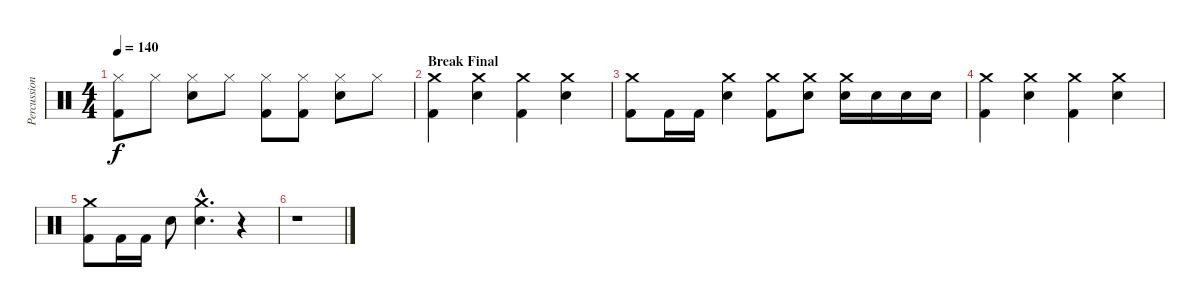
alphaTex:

\track ("Percussions" "Percussion") {instrument percussion}
\staff {score}
\articulation defaults
\ts (4 4)
\tempo 140
\clef neutral
\ks c
("Hi-Hat (closed)" "Kick (hit) 2").8{dy f} "Hi-Hat (closed)".8 ("Hi-Hat (closed)" "Electric Snare (hit)").8 "Hi-Hat (closed)".8 ("Hi-Hat (closed)" "Kick (hit) 2").8 ("Hi-Hat (closed)" "Kick (hit) 2").8 ("Hi-Hat (closed)" "Electric Snare (hit)").8 "Hi-Hat (closed)".8 |
\section ("" "Break Final")
("Crash medium (hit)" "Kick (hit) 2").4 ("Crash medium (hit)" "Electric Snare (hit)").4 ("Crash medium (hit)" "Kick (hit) 2").4 ("Crash medium (hit)" "Electric Snare (hit)").4 |
("Crash medium (hit)" "Kick (hit) 2").8 "Kick (hit) 2".16 "Kick (hit) 2".16 ("Crash medium (hit)" "Electric Snare (hit)").4 ("Crash medium (hit)" "Kick (hit) 2").8 ("Crash medium (hit)" "Electric Snare (hit)").8 ("Crash medium (hit)" "Electric Snare (hit)").16 "Electric Snare (hit)".16 "Electric Snare (hit)".16 "Electric Snare (hit)".16 |
("Crash medium (hit)" "Kick (hit) 2").4 ("Crash medium (hit)" "Electric Snare (hit)").4 ("Crash medium (hit)" "Kick (hit) 2").4 ("Crash medium (hit)" "Electric Snare (hit)").4 |
("Crash medium (hit)" "Kick (hit) 2").8 "Kick (hit) 2".16 "Kick (hit) 2".16 "Electric Snare (hit)".8 ("Crash medium (hit)"{hac} "Electric Snare (hit)"{hac}).4{d} r.4 |
r.1
